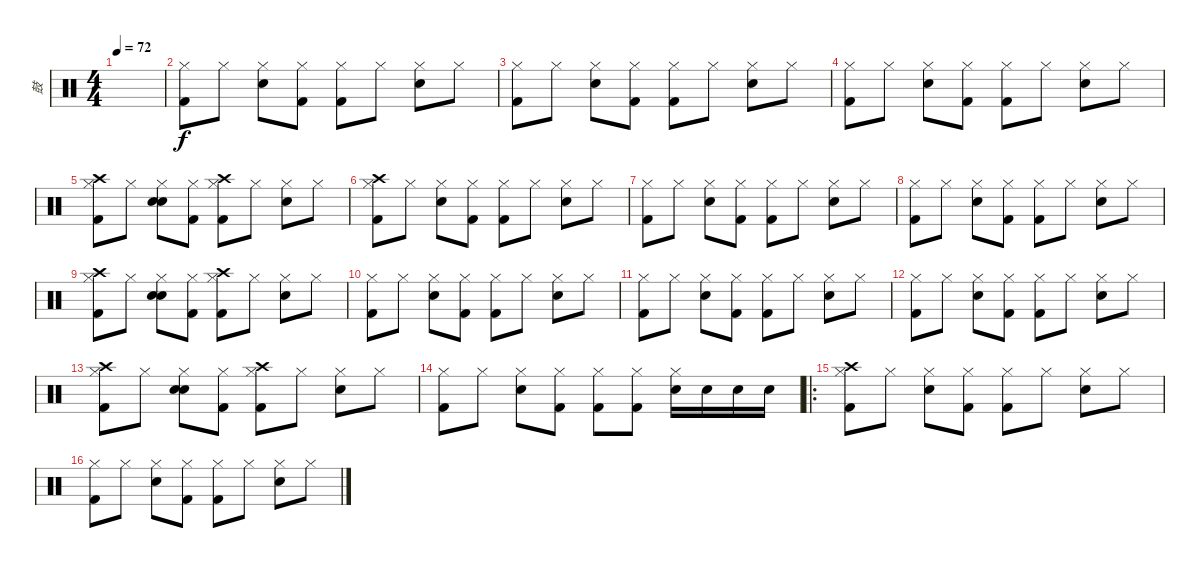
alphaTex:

\track ("鼓" "鼓") {instrument percussion}
\staff {score}
\articulation defaults
\ts (4 4)
\tempo 72
\clef neutral
\ks c
|
("Hi-Hat (closed)" "Kick (hit) 2").8 "Hi-Hat (closed)".8 ("Hi-Hat (closed)" "Snare (hit) 2").8 ("Hi-Hat (closed)" "Kick (hit) 2").8 ("Hi-Hat (closed)" "Kick (hit) 2").8 "Hi-Hat (closed)".8 ("Hi-Hat (closed)" "Snare (hit) 2").8 "Hi-Hat (closed)".8 |
("Hi-Hat (closed)" "Kick (hit) 2").8 "Hi-Hat (closed)".8 ("Hi-Hat (closed)" "Snare (hit) 2").8 ("Hi-Hat (closed)" "Kick (hit) 2").8 ("Hi-Hat (closed)" "Kick (hit) 2").8 "Hi-Hat (closed)".8 ("Hi-Hat (closed)" "Snare (hit) 2").8 "Hi-Hat (closed)".8 |
("Hi-Hat (closed)" "Kick (hit) 2").8 "Hi-Hat (closed)".8 ("Hi-Hat (closed)" "Snare (hit) 2").8 ("Hi-Hat (closed)" "Kick (hit) 2").8 ("Hi-Hat (closed)" "Kick (hit) 2").8 "Hi-Hat (closed)".8 ("Hi-Hat (closed)" "Snare (hit) 2").8 "Hi-Hat (closed)".8 |
("Hi-Hat (closed)" "Crash high (hit)" "Kick (hit) 2").8 "Hi-Hat (closed)".8 ("Hi-Hat (closed)" "Snare (hit) 2" "Snare (hit) 2").8 ("Hi-Hat (closed)" "Kick (hit) 2").8 ("Hi-Hat (closed)" "Kick (hit) 2" "Crash high (hit)").8 "Hi-Hat (closed)".8 ("Hi-Hat (closed)" "Snare (hit) 2").8 "Hi-Hat (closed)".8 |
("Hi-Hat (closed)" "Kick (hit) 2" "Crash high (hit)").8 "Hi-Hat (closed)".8 ("Hi-Hat (closed)" "Snare (hit) 2").8 ("Hi-Hat (closed)" "Kick (hit) 2").8 ("Hi-Hat (closed)" "Kick (hit) 2").8 "Hi-Hat (closed)".8 ("Hi-Hat (closed)" "Snare (hit) 2").8 "Hi-Hat (closed)".8 |
("Hi-Hat (closed)" "Kick (hit) 2").8 "Hi-Hat (closed)".8 ("Hi-Hat (closed)" "Snare (hit) 2").8 ("Hi-Hat (closed)" "Kick (hit) 2").8 ("Hi-Hat (closed)" "Kick (hit) 2").8 "Hi-Hat (closed)".8 ("Hi-Hat (closed)" "Snare (hit) 2").8 "Hi-Hat (closed)".8 |
("Hi-Hat (closed)" "Kick (hit) 2").8 "Hi-Hat (closed)".8 ("Hi-Hat (closed)" "Snare (hit) 2").8 ("Hi-Hat (closed)" "Kick (hit) 2").8 ("Hi-Hat (closed)" "Kick (hit) 2").8 "Hi-Hat (closed)".8 ("Hi-Hat (closed)" "Snare (hit) 2").8 "Hi-Hat (closed)".8 |
("Hi-Hat (closed)" "Crash high (hit)" "Kick (hit) 2").8 "Hi-Hat (closed)".8 ("Hi-Hat (closed)" "Snare (hit) 2" "Snare (hit) 2").8 ("Hi-Hat (closed)" "Kick (hit) 2").8 ("Hi-Hat (closed)" "Kick (hit) 2" "Crash high (hit)").8 "Hi-Hat (closed)".8 ("Hi-Hat (closed)" "Snare (hit) 2").8 "Hi-Hat (closed)".8 |
("Hi-Hat (closed)" "Kick (hit) 2").8 "Hi-Hat (closed)".8 ("Hi-Hat (closed)" "Snare (hit) 2").8 ("Hi-Hat (closed)" "Kick (hit) 2").8 ("Hi-Hat (closed)" "Kick (hit) 2").8 "Hi-Hat (closed)".8 ("Hi-Hat (closed)" "Snare (hit) 2").8 "Hi-Hat (closed)".8 |
("Hi-Hat (closed)" "Kick (hit) 2").8 "Hi-Hat (closed)".8 ("Hi-Hat (closed)" "Snare (hit) 2").8 ("Hi-Hat (closed)" "Kick (hit) 2").8 ("Hi-Hat (closed)" "Kick (hit) 2").8 "Hi-Hat (closed)".8 ("Hi-Hat (closed)" "Snare (hit) 2").8 "Hi-Hat (closed)".8 |
("Hi-Hat (closed)" "Kick (hit) 2").8 "Hi-Hat (closed)".8 ("Hi-Hat (closed)" "Snare (hit) 2").8 ("Hi-Hat (closed)" "Kick (hit) 2").8 ("Hi-Hat (closed)" "Kick (hit) 2").8 "Hi-Hat (closed)".8 ("Hi-Hat (closed)" "Snare (hit) 2").8 "Hi-Hat (closed)".8 |
("Hi-Hat (closed)" "Crash high (hit)" "Kick (hit) 2").8 "Hi-Hat (closed)".8 ("Hi-Hat (closed)" "Snare (hit) 2" "Snare (hit) 2").8 ("Hi-Hat (closed)" "Kick (hit) 2").8 ("Hi-Hat (closed)" "Kick (hit) 2" "Crash high (hit)").8 "Hi-Hat (closed)".8 ("Hi-Hat (closed)" "Snare (hit) 2").8 "Hi-Hat (closed)".8 |
("Hi-Hat (closed)" "Kick (hit) 2").8 "Hi-Hat (closed)".8 ("Hi-Hat (closed)" "Snare (hit) 2").8 ("Hi-Hat (closed)" "Kick (hit) 2").8 ("Hi-Hat (closed)" "Kick (hit) 2").8 ("Hi-Hat (closed)" "Kick (hit) 2").8 ("Hi-Hat (closed)" "Snare (hit) 2").16 "Snare (hit) 2".16 "Snare (hit) 2".16 "Snare (hit) 2".16 |
\ro
("Hi-Hat (closed)" "Kick (hit) 2" "Crash high (hit)").8 "Hi-Hat (closed)".8 ("Hi-Hat (closed)" "Snare (hit) 2").8 ("Hi-Hat (closed)" "Kick (hit) 2").8 ("Hi-Hat (closed)" "Kick (hit) 2").8 "Hi-Hat (closed)".8 ("Hi-Hat (closed)" "Snare (hit) 2").8 "Hi-Hat (closed)".8 |
("Hi-Hat (closed)" "Kick (hit) 2").8 "Hi-Hat (closed)".8 ("Hi-Hat (closed)" "Snare (hit) 2").8 ("Hi-Hat (closed)" "Kick (hit) 2").8 ("Hi-Hat (closed)" "Kick (hit) 2").8 "Hi-Hat (closed)".8 ("Hi-Hat (closed)" "Snare (hit) 2").8 "Hi-Hat (closed)".8
